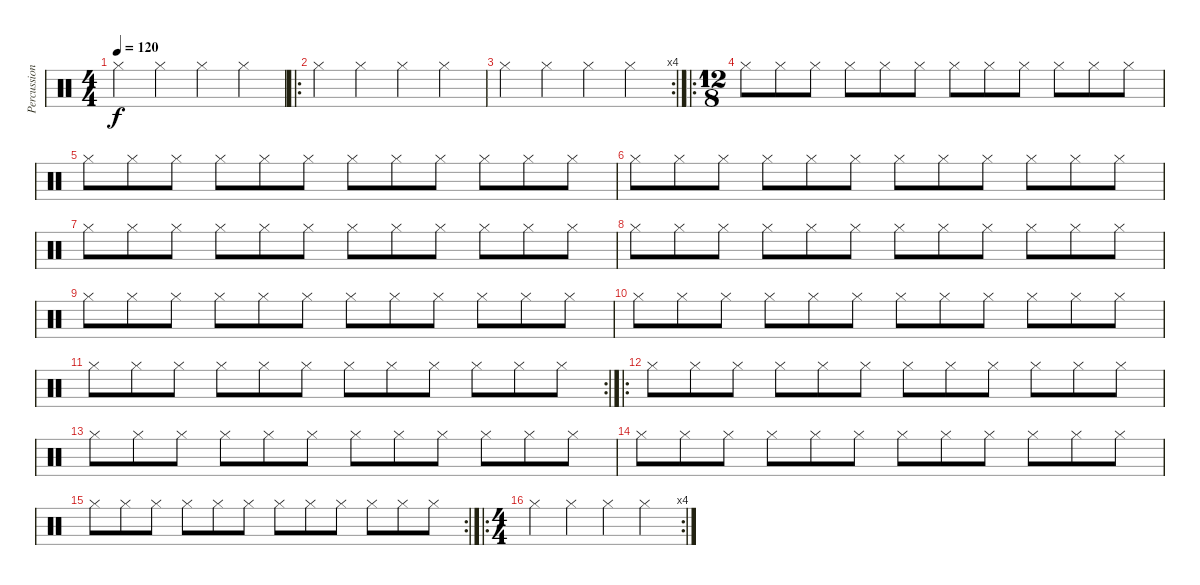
\track ("Percussioni" "Percussion") {instrument percussion}
\staff {score}
\articulation defaults
\ts (4 4)
\tempo 120
\clef neutral
\ks c "Hi-Hat (closed)".4{dy f} "Hi-Hat (closed)".4 "Hi-Hat (closed)".4 "Hi-Hat (closed)".4
|
\ro "Hi-Hat (closed)".4 "Hi-Hat (closed)".4 "Hi-Hat (closed)".4 "Hi-Hat (closed)".4
|
\rc 4 "Hi-Hat (closed)".4 "Hi-Hat (closed)".4 "Hi-Hat (closed)".4 "Hi-Hat (closed)".4
|
\ro
\ts (12 8)
"Hi-Hat (closed)".8 "Hi-Hat (closed)".8 "Hi-Hat (closed)".8 "Hi-Hat (closed)".8 "Hi-Hat (closed)".8 "Hi-Hat (closed)".8 "Hi-Hat (closed)".8 "Hi-Hat (closed)".8 "Hi-Hat (closed)".8 "Hi-Hat (closed)".8 "Hi-Hat (closed)".8 "Hi-Hat (closed)".8 |
"Hi-Hat (closed)".8 "Hi-Hat (closed)".8 "Hi-Hat (closed)".8 "Hi-Hat (closed)".8 "Hi-Hat (closed)".8 "Hi-Hat (closed)".8 "Hi-Hat (closed)".8 "Hi-Hat (closed)".8 "Hi-Hat (closed)".8 "Hi-Hat (closed)".8 "Hi-Hat (closed)".8 "Hi-Hat (closed)".8 |
"Hi-Hat (closed)".8 "Hi-Hat (closed)".8 "Hi-Hat (closed)".8 "Hi-Hat (closed)".8 "Hi-Hat (closed)".8 "Hi-Hat (closed)".8 "Hi-Hat (closed)".8 "Hi-Hat (closed)".8 "Hi-Hat (closed)".8 "Hi-Hat (closed)".8 "Hi-Hat (closed)".8 "Hi-Hat (closed)".8 |
"Hi-Hat (closed)".8 "Hi-Hat (closed)".8 "Hi-Hat (closed)".8 "Hi-Hat (closed)".8 "Hi-Hat (closed)".8 "Hi-Hat (closed)".8 "Hi-Hat (closed)".8 "Hi-Hat (closed)".8 "Hi-Hat (closed)".8 "Hi-Hat (closed)".8 "Hi-Hat (closed)".8 "Hi-Hat (closed)".8 |
"Hi-Hat (closed)".8 "Hi-Hat (closed)".8 "Hi-Hat (closed)".8 "Hi-Hat (closed)".8 "Hi-Hat (closed)".8 "Hi-Hat (closed)".8 "Hi-Hat (closed)".8 "Hi-Hat (closed)".8 "Hi-Hat (closed)".8 "Hi-Hat (closed)".8 "Hi-Hat (closed)".8 "Hi-Hat (closed)".8 |
"Hi-Hat (closed)".8 "Hi-Hat (closed)".8 "Hi-Hat (closed)".8 "Hi-Hat (closed)".8 "Hi-Hat (closed)".8 "Hi-Hat (closed)".8 "Hi-Hat (closed)".8 "Hi-Hat (closed)".8 "Hi-Hat (closed)".8 "Hi-Hat (closed)".8 "Hi-Hat (closed)".8 "Hi-Hat (closed)".8 |
"Hi-Hat (closed)".8 "Hi-Hat (closed)".8 "Hi-Hat (closed)".8 "Hi-Hat (closed)".8 "Hi-Hat (closed)".8 "Hi-Hat (closed)".8 "Hi-Hat (closed)".8 "Hi-Hat (closed)".8 "Hi-Hat (closed)".8 "Hi-Hat (closed)".8 "Hi-Hat (closed)".8 "Hi-Hat (closed)".8 |
\rc 2 "Hi-Hat (closed)".8 "Hi-Hat (closed)".8 "Hi-Hat (closed)".8 "Hi-Hat (closed)".8 "Hi-Hat (closed)".8 "Hi-Hat (closed)".8 "Hi-Hat (closed)".8 "Hi-Hat (closed)".8 "Hi-Hat (closed)".8 "Hi-Hat (closed)".8 "Hi-Hat (closed)".8 "Hi-Hat (closed)".8
|
\ro "Hi-Hat (closed)".8 "Hi-Hat (closed)".8 "Hi-Hat (closed)".8 "Hi-Hat (closed)".8 "Hi-Hat (closed)".8 "Hi-Hat (closed)".8 "Hi-Hat (closed)".8 "Hi-Hat (closed)".8 "Hi-Hat (closed)".8 "Hi-Hat (closed)".8 "Hi-Hat (closed)".8 "Hi-Hat (closed)".8
|
"Hi-Hat (closed)".8 "Hi-Hat (closed)".8 "Hi-Hat (closed)".8 "Hi-Hat (closed)".8 "Hi-Hat (closed)".8 "Hi-Hat (closed)".8 "Hi-Hat (closed)".8 "Hi-Hat (closed)".8 "Hi-Hat (closed)".8 "Hi-Hat (closed)".8 "Hi-Hat (closed)".8 "Hi-Hat (closed)".8 |
"Hi-Hat (closed)".8 "Hi-Hat (closed)".8 "Hi-Hat (closed)".8 "Hi-Hat (closed)".8 "Hi-Hat (closed)".8 "Hi-Hat (closed)".8 "Hi-Hat (closed)".8 "Hi-Hat (closed)".8 "Hi-Hat (closed)".8 "Hi-Hat (closed)".8 "Hi-Hat (closed)".8 "Hi-Hat (closed)".8 |
\rc 2 "Hi-Hat (closed)".8 "Hi-Hat (closed)".8 "Hi-Hat (closed)".8 "Hi-Hat (closed)".8 "Hi-Hat (closed)".8 "Hi-Hat (closed)".8 "Hi-Hat (closed)".8 "Hi-Hat (closed)".8 "Hi-Hat (closed)".8 "Hi-Hat (closed)".8 "Hi-Hat (closed)".8 "Hi-Hat (closed)".8
|
\ro
\rc 4
\ts (4 4)
"Hi-Hat (closed)".4 "Hi-Hat (closed)".4 "Hi-Hat (closed)".4 "Hi-Hat (closed)".4
